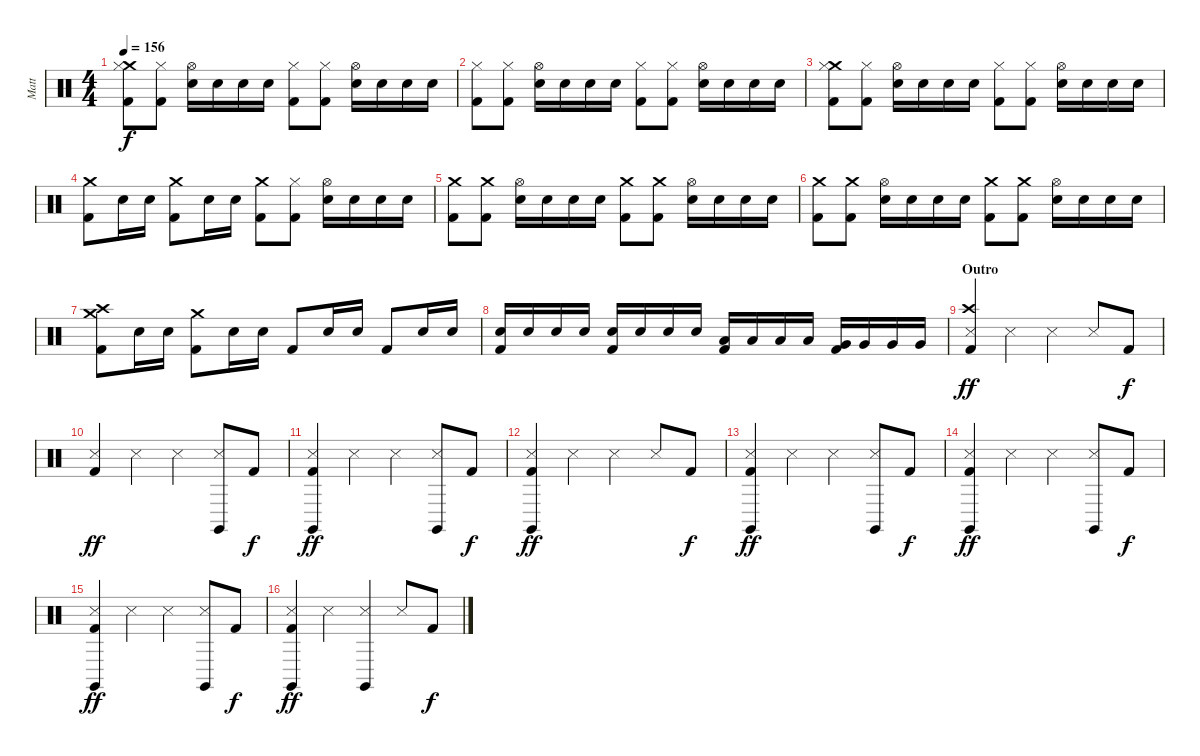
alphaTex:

\track ("Matt" "Matt") {instrument percussion}
\staff {score}
\articulation defaults
\ts (4 4)
\tempo 156
\clef neutral
\ks c
("Crash medium (hit)" "Hi-Hat (closed)" "Kick (hit) 2").8{dy f} ("Hi-Hat (closed)" "Kick (hit) 2").8 ("Hi-Hat (open)" "Electric Snare (hit)").16 "Electric Snare (hit)".16 "Electric Snare (hit)".16 "Electric Snare (hit)".16 ("Hi-Hat (closed)" "Kick (hit) 2").8 ("Hi-Hat (closed)" "Kick (hit) 2").8 ("Hi-Hat (open)" "Electric Snare (hit)").16 "Electric Snare (hit)".16 "Electric Snare (hit)".16 "Electric Snare (hit)".16 |
("Hi-Hat (closed)" "Kick (hit) 2").8 ("Hi-Hat (closed)" "Kick (hit) 2").8 ("Hi-Hat (open)" "Electric Snare (hit)").16 "Electric Snare (hit)".16 "Electric Snare (hit)".16 "Electric Snare (hit)".16 ("Hi-Hat (closed)" "Kick (hit) 2").8 ("Hi-Hat (closed)" "Kick (hit) 2").8 ("Hi-Hat (open)" "Electric Snare (hit)").16 "Electric Snare (hit)".16 "Electric Snare (hit)".16 "Electric Snare (hit)".16 |
("Crash medium (hit)" "Hi-Hat (closed)" "Kick (hit) 2").8 ("Hi-Hat (closed)" "Kick (hit) 2").8 ("Hi-Hat (open)" "Electric Snare (hit)").16 "Electric Snare (hit)".16 "Electric Snare (hit)".16 "Electric Snare (hit)".16 ("Hi-Hat (closed)" "Kick (hit) 2").8 ("Hi-Hat (closed)" "Kick (hit) 2").8 ("Hi-Hat (open)" "Electric Snare (hit)").16 "Electric Snare (hit)".16 "Electric Snare (hit)".16 "Electric Snare (hit)".16 |
("Crash medium (hit)" "Kick (hit) 2").8 "Electric Snare (hit)".16 "Electric Snare (hit)".16 ("Crash medium (hit)" "Kick (hit) 2").8 "Electric Snare (hit)".16 "Electric Snare (hit)".16 ("Crash medium (hit)" "Kick (hit) 2").8 ("Hi-Hat (closed)" "Kick (hit) 2").8 ("Hi-Hat (open)" "Electric Snare (hit)").16 "Electric Snare (hit)".16 "Electric Snare (hit)".16 "Electric Snare (hit)".16 |
("Crash medium (hit)" "Kick (hit) 2").8 ("Crash medium (hit)" "Kick (hit) 2").8 ("Hi-Hat (open)" "Electric Snare (hit)").16 "Electric Snare (hit)".16 "Electric Snare (hit)".16 "Electric Snare (hit)".16 ("Crash medium (hit)" "Kick (hit) 2").8 ("Crash medium (hit)" "Kick (hit) 2").8 ("Hi-Hat (open)" "Electric Snare (hit)").16 "Electric Snare (hit)".16 "Electric Snare (hit)".16 "Electric Snare (hit)".16 |
("Crash medium (hit)" "Kick (hit) 2").8 ("Crash medium (hit)" "Kick (hit) 2").8 ("Hi-Hat (open)" "Electric Snare (hit)").16 "Electric Snare (hit)".16 "Electric Snare (hit)".16 "Electric Snare (hit)".16 ("Crash medium (hit)" "Kick (hit) 2").8 ("Crash medium (hit)" "Kick (hit) 2").8 ("Hi-Hat (open)" "Electric Snare (hit)").16 "Electric Snare (hit)".16 "Electric Snare (hit)".16 "Electric Snare (hit)".16 |
("Crash medium (hit)" "Crash high (hit)" "Kick (hit) 2").8 "Electric Snare (hit)".16 "Electric Snare (hit)".16 ("Crash medium (hit)" "Kick (hit) 2").8 "Electric Snare (hit)".16 "Electric Snare (hit)".16 "Kick (hit) 2".8 "Electric Snare (hit)".16 "Electric Snare (hit)".16 "Kick (hit) 2".8 "Electric Snare (hit)".16 "Electric Snare (hit)".16 |
("Electric Snare (hit)" "Kick (hit) 2").16 "Electric Snare (hit)".16 "Electric Snare (hit)".16 "Electric Snare (hit)".16 ("Electric Snare (hit)" "Kick (hit) 2").16 "Electric Snare (hit)".16 "Electric Snare (hit)".16 "Electric Snare (hit)".16 ("Low Tom (hit)" "Kick (hit) 2").16 "Low Tom (hit)".16 "Low Tom (hit)".16 "Low Tom (hit)".16 ("Very Low Tom (hit)" "Kick (hit) 2").16 "Very Low Tom (hit)".16 "Very Low Tom (hit)".16 "Very Low Tom (hit)".16 |
\section ("" "Outro")
("Crash high (hit)" "Snare (side stick) 3" "Kick (hit) 2").4{dy ff} "Snare (side stick) 3".4 "Snare (side stick) 3".4 "Snare (side stick) 3".8 "Kick (hit) 2".8{dy f} |
("Snare (side stick) 3" "Kick (hit) 2").4{dy ff} "Snare (side stick) 3".4 "Snare (side stick) 3".4 ("Claves (hit)" "Snare (side stick) 3").8 "Kick (hit) 2".8{dy f} |
("Claves (hit)" "Snare (side stick) 3" "Kick (hit) 2").4{dy ff} "Snare (side stick) 3".4 "Snare (side stick) 3".4 ("Claves (hit)" "Snare (side stick) 3").8 "Kick (hit) 2".8{dy f} |
("Claves (hit)" "Snare (side stick) 3" "Kick (hit) 2").4{dy ff} "Snare (side stick) 3".4 "Snare (side stick) 3".4 "Snare (side stick) 3".8 "Kick (hit) 2".8{dy f} |
("Claves (hit)" "Snare (side stick) 3" "Kick (hit) 2").4{dy ff} "Snare (side stick) 3".4 "Snare (side stick) 3".4 ("Claves (hit)" "Snare (side stick) 3").8 "Kick (hit) 2".8{dy f} |
("Claves (hit)" "Snare (side stick) 3" "Kick (hit) 2").4{dy ff} "Snare (side stick) 3".4 "Snare (side stick) 3".4 ("Claves (hit)" "Snare (side stick) 3").8 "Kick (hit) 2".8{dy f} |
("Claves (hit)" "Snare (side stick) 3" "Kick (hit) 2").4{dy ff} "Snare (side stick) 3".4 "Snare (side stick) 3".4 ("Claves (hit)" "Snare (side stick) 3").8 "Kick (hit) 2".8{dy f} |
("Claves (hit)" "Snare (side stick) 3" "Kick (hit) 2").4{dy ff} "Snare (side stick) 3".4 ("Claves (hit)" "Snare (side stick) 3").4 "Snare (side stick) 3".8 "Kick (hit) 2".8{dy f}
